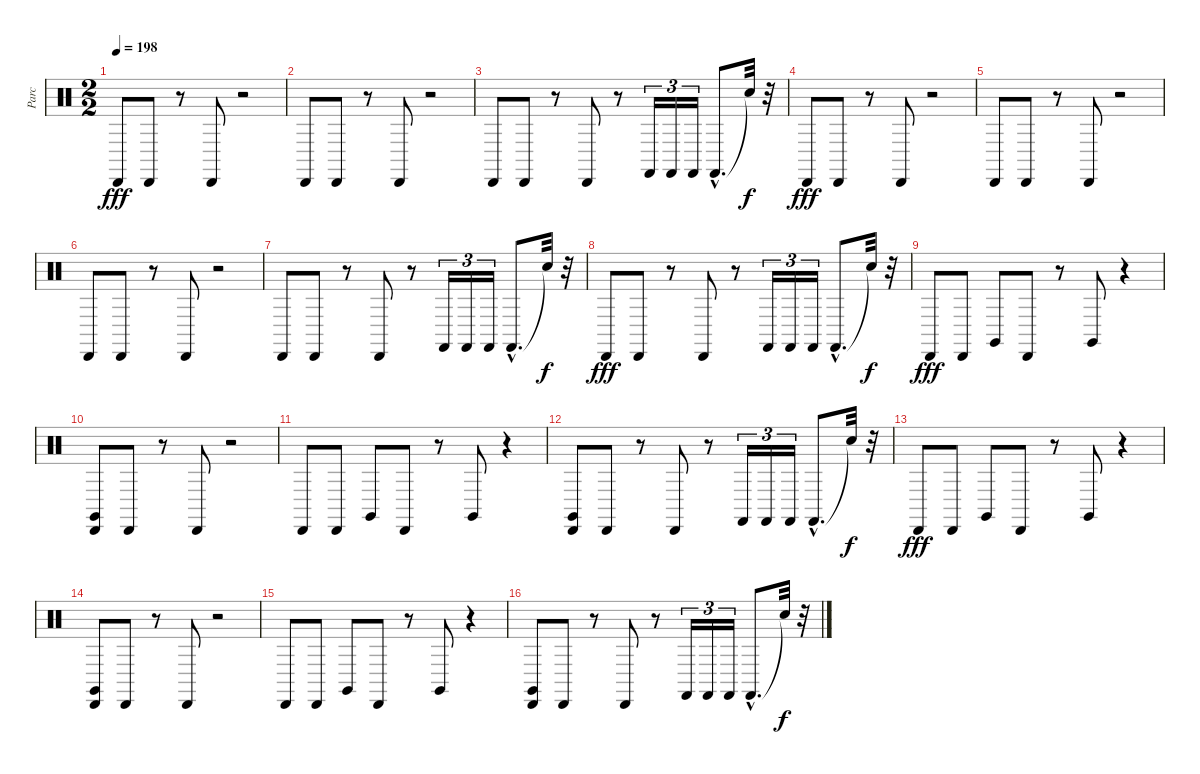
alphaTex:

\track ("Parc" "Parc") {instrument percussion}
\staff {score}
\articulation defaults
\ts (2 2)
\tempo 198
\clef neutral
\ks c "Cabasa (hit)".8{dy fff} "Cabasa (hit)".8
r.8 "Cabasa (hit)".8 r.2 |
"Cabasa (hit)".8 "Cabasa (hit)".8 r.8 "Cabasa (hit)".8 r.2 |
"Cabasa (hit)".8 "Cabasa (hit)".8 r.8 "Cabasa (hit)".8 r.8 "Castanets (hit)".16{tu (3 2)} "Castanets (hit)".16{tu (3 2)} "Castanets (hit)".16{tu (3 2)} "Castanets (hit)"{hac}.8{d} "Snare (hit)"{t}.32{dy f} r.32 |
"Cabasa (hit)".8{dy fff} "Cabasa (hit)".8 r.8 "Cabasa (hit)".8 r.2 |
"Cabasa (hit)".8 "Cabasa (hit)".8 r.8 "Cabasa (hit)".8 r.2 |
"Cabasa (hit)".8 "Cabasa (hit)".8 r.8 "Cabasa (hit)".8 r.2 |
"Cabasa (hit)".8 "Cabasa (hit)".8 r.8 "Cabasa (hit)".8 r.8 "Castanets (hit)".16{tu (3 2)} "Castanets (hit)".16{tu (3 2)} "Castanets (hit)".16{tu (3 2)} "Castanets (hit)"{hac}.8{d} "Snare (hit)"{t}.32{dy f} r.32 |
"Cabasa (hit)".8{dy fff} "Cabasa (hit)".8 r.8 "Cabasa (hit)".8 r.8 "Castanets (hit)".16{tu (3 2)} "Castanets (hit)".16{tu (3 2)} "Castanets (hit)".16{tu (3 2)} "Castanets (hit)"{hac}.8{d} "Snare (hit)"{t}.32{dy f} r.32 |
"Cabasa (hit)".8{dy fff} "Cabasa (hit)".8 "Claves (hit)".8 "Cabasa (hit)".8 r.8 "Claves (hit)".8 r.4 |
("Cabasa (hit)" "Claves (hit)").8 "Cabasa (hit)".8 r.8 "Cabasa (hit)".8 r.2 |
"Cabasa (hit)".8 "Cabasa (hit)".8 "Claves (hit)".8 "Cabasa (hit)".8 r.8 "Claves (hit)".8 r.4 |
("Cabasa (hit)" "Claves (hit)").8 "Cabasa (hit)".8 r.8 "Cabasa (hit)".8 r.8 "Castanets (hit)".16{tu (3 2)} "Castanets (hit)".16{tu (3 2)} "Castanets (hit)".16{tu (3 2)} "Castanets (hit)"{hac}.8{d} "Snare (hit)"{t}.32{dy f} r.32 |
"Cabasa (hit)".8{dy fff} "Cabasa (hit)".8 "Claves (hit)".8 "Cabasa (hit)".8 r.8 "Claves (hit)".8 r.4 |
("Cabasa (hit)" "Claves (hit)").8 "Cabasa (hit)".8 r.8 "Cabasa (hit)".8 r.2 |
"Cabasa (hit)".8 "Cabasa (hit)".8 "Claves (hit)".8 "Cabasa (hit)".8 r.8 "Claves (hit)".8 r.4 |
("Cabasa (hit)" "Claves (hit)").8 "Cabasa (hit)".8 r.8 "Cabasa (hit)".8 r.8 "Castanets (hit)".16{tu (3 2)} "Castanets (hit)".16{tu (3 2)} "Castanets (hit)".16{tu (3 2)} "Castanets (hit)"{hac}.8{d} "Snare (hit)"{t}.32{dy f} r.32
